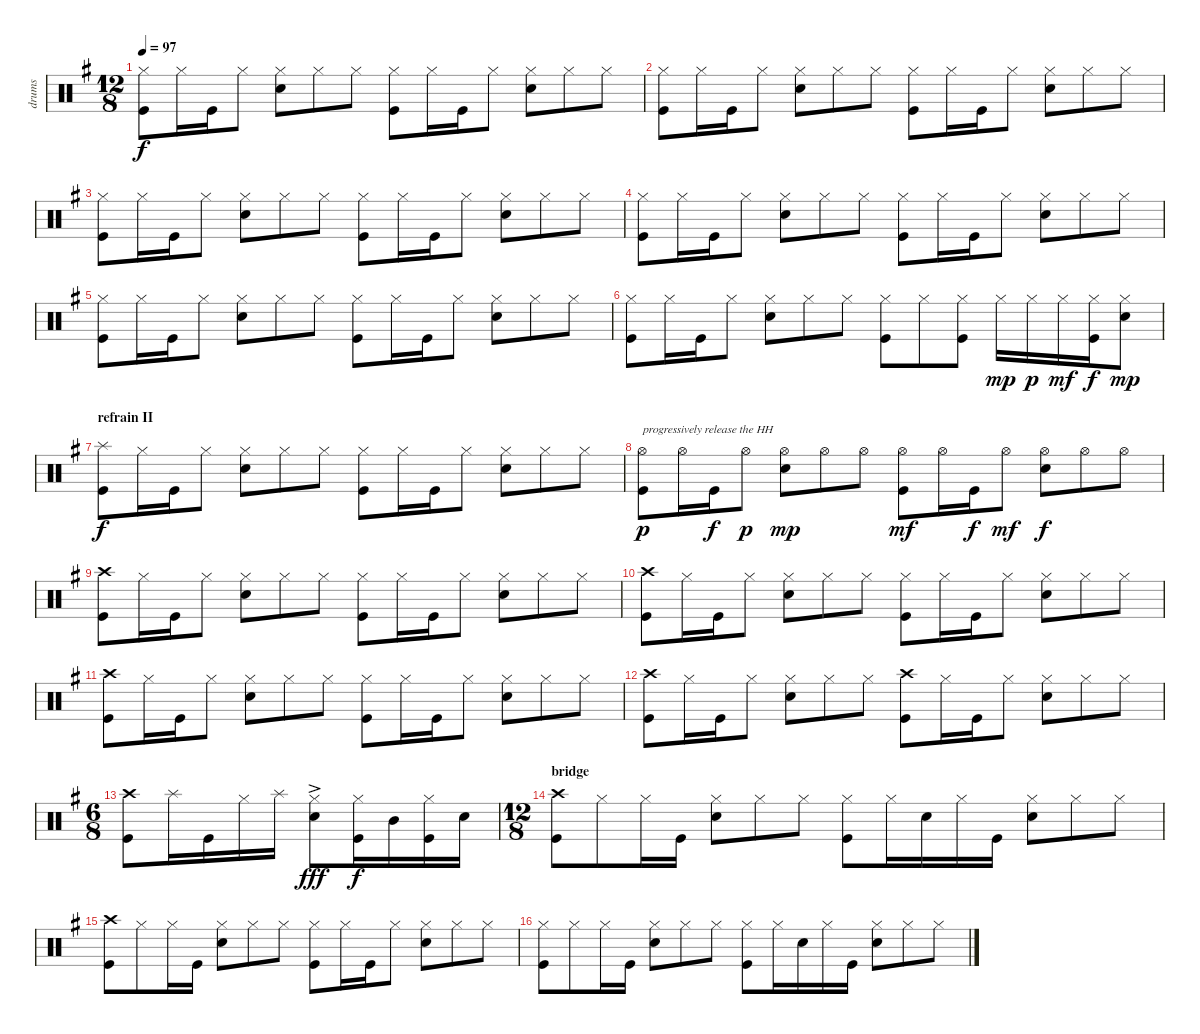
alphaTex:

\track ("drums" "drums") {instrument percussion}
\staff {score}
\articulation defaults
\ts (12 8)
\tempo 97
\clef neutral
\ks g
("Hi-Hat (closed)" "Kick (hit)").8{dy f} "Hi-Hat (closed)".16 "Kick (hit)".16 "Hi-Hat (closed)".8 ("Hi-Hat (closed)" "Electric Snare (hit)").8 "Hi-Hat (closed)".8 "Hi-Hat (closed)".8 ("Hi-Hat (closed)" "Kick (hit)").8 "Hi-Hat (closed)".16 "Kick (hit)".16 "Hi-Hat (closed)".8 ("Hi-Hat (closed)" "Electric Snare (hit)").8 "Hi-Hat (closed)".8 "Hi-Hat (closed)".8 |
("Hi-Hat (closed)" "Kick (hit)").8 "Hi-Hat (closed)".16 "Kick (hit)".16 "Hi-Hat (closed)".8 ("Hi-Hat (closed)" "Electric Snare (hit)").8 "Hi-Hat (closed)".8 "Hi-Hat (closed)".8 ("Hi-Hat (closed)" "Kick (hit)").8 "Hi-Hat (closed)".16 "Kick (hit)".16 "Hi-Hat (closed)".8 ("Hi-Hat (closed)" "Electric Snare (hit)").8 "Hi-Hat (closed)".8 "Hi-Hat (closed)".8 |
("Hi-Hat (closed)" "Kick (hit)").8 "Hi-Hat (closed)".16 "Kick (hit)".16 "Hi-Hat (closed)".8 ("Hi-Hat (closed)" "Electric Snare (hit)").8 "Hi-Hat (closed)".8 "Hi-Hat (closed)".8 ("Hi-Hat (closed)" "Kick (hit)").8 "Hi-Hat (closed)".16 "Kick (hit)".16 "Hi-Hat (closed)".8 ("Hi-Hat (closed)" "Electric Snare (hit)").8 "Hi-Hat (closed)".8 "Hi-Hat (closed)".8 |
("Hi-Hat (closed)" "Kick (hit)").8 "Hi-Hat (closed)".16 "Kick (hit)".16 "Hi-Hat (closed)".8 ("Hi-Hat (closed)" "Electric Snare (hit)").8 "Hi-Hat (closed)".8 "Hi-Hat (closed)".8 ("Hi-Hat (closed)" "Kick (hit)").8 "Hi-Hat (closed)".16 "Kick (hit)".16 "Hi-Hat (closed)".8 ("Hi-Hat (closed)" "Electric Snare (hit)").8 "Hi-Hat (closed)".8 "Hi-Hat (closed)".8 |
("Hi-Hat (closed)" "Kick (hit)").8 "Hi-Hat (closed)".16 "Kick (hit)".16 "Hi-Hat (closed)".8 ("Hi-Hat (closed)" "Electric Snare (hit)").8 "Hi-Hat (closed)".8 "Hi-Hat (closed)".8 ("Hi-Hat (closed)" "Kick (hit)").8 "Hi-Hat (closed)".16 "Kick (hit)".16 "Hi-Hat (closed)".8 ("Hi-Hat (closed)" "Electric Snare (hit)").8 "Hi-Hat (closed)".8 "Hi-Hat (closed)".8 |
("Hi-Hat (closed)" "Kick (hit)").8 "Hi-Hat (closed)".16 "Kick (hit)".16 "Hi-Hat (closed)".8 ("Hi-Hat (closed)" "Electric Snare (hit)").8 "Hi-Hat (closed)".8 "Hi-Hat (closed)".8 ("Hi-Hat (closed)" "Kick (hit)").8 "Hi-Hat (closed)".8 ("Hi-Hat (closed)" "Kick (hit)").8 "Hi-Hat (closed)".16{dy mp} "Hi-Hat (closed)".16{dy p} "Hi-Hat (closed)".16{dy mf} ("Hi-Hat (closed)" "Kick (hit)").16{dy f} ("Hi-Hat (closed)" "Electric Snare (hit)").8{dy mp} |
\section ("" "refrain II")
("Splash (hit)" "Kick (hit)").8{dy f} "Hi-Hat (closed)".16 "Kick (hit)".16 "Hi-Hat (closed)".8 ("Hi-Hat (closed)" "Electric Snare (hit)").8 "Hi-Hat (closed)".8 "Hi-Hat (closed)".8 ("Hi-Hat (closed)" "Kick (hit)").8 "Hi-Hat (closed)".16 "Kick (hit)".16 "Hi-Hat (closed)".8 ("Hi-Hat (closed)" "Electric Snare (hit)").8 "Hi-Hat (closed)".8 "Hi-Hat (closed)".8 |
("Hi-Hat (open)" "Kick (hit)").8{txt "progressively release the HH" dy p} "Hi-Hat (open)".16 "Kick (hit)".16{dy f} "Hi-Hat (open)".8{dy p} ("Hi-Hat (open)" "Electric Snare (hit)").8{dy mp} "Hi-Hat (open)".8 "Hi-Hat (open)".8 ("Hi-Hat (open)" "Kick (hit)").8{dy mf} "Hi-Hat (open)".16 "Kick (hit)".16{dy f} "Hi-Hat (open)".8{dy mf} ("Hi-Hat (open)" "Electric Snare (hit)").8{dy f} "Hi-Hat (open)".8 "Hi-Hat (open)".8 |
("Crash high (hit)" "Kick (hit)").8 "Hi-Hat (closed)".16 "Kick (hit)".16 "Hi-Hat (closed)".8 ("Hi-Hat (closed)" "Electric Snare (hit)").8 "Hi-Hat (closed)".8 "Hi-Hat (closed)".8 ("Hi-Hat (closed)" "Kick (hit)").8 "Hi-Hat (closed)".16 "Kick (hit)".16 "Hi-Hat (closed)".8 ("Hi-Hat (closed)" "Electric Snare (hit)").8 "Hi-Hat (closed)".8 "Hi-Hat (closed)".8 |
("Crash high (hit)" "Kick (hit)").8 "Hi-Hat (closed)".16 "Kick (hit)".16 "Hi-Hat (closed)".8 ("Hi-Hat (closed)" "Electric Snare (hit)").8 "Hi-Hat (closed)".8 "Hi-Hat (closed)".8 ("Hi-Hat (closed)" "Kick (hit)").8 "Hi-Hat (closed)".16 "Kick (hit)".16 "Hi-Hat (closed)".8 ("Hi-Hat (closed)" "Electric Snare (hit)").8 "Hi-Hat (closed)".8 "Hi-Hat (closed)".8 |
("Crash high (hit)" "Kick (hit)").8 "Hi-Hat (closed)".16 "Kick (hit)".16 "Hi-Hat (closed)".8 ("Hi-Hat (closed)" "Electric Snare (hit)").8 "Hi-Hat (closed)".8 "Hi-Hat (closed)".8 ("Hi-Hat (closed)" "Kick (hit)").8 "Hi-Hat (closed)".16 "Kick (hit)".16 "Hi-Hat (closed)".8 ("Hi-Hat (closed)" "Electric Snare (hit)").8 "Hi-Hat (closed)".8 "Hi-Hat (closed)".8 |
("Crash high (hit)" "Kick (hit)").8 "Hi-Hat (closed)".16 "Kick (hit)".16 "Hi-Hat (closed)".8 ("Hi-Hat (closed)" "Electric Snare (hit)").8 "Hi-Hat (closed)".8 "Hi-Hat (closed)".8 ("Crash high (hit)" "Kick (hit)").8 "Hi-Hat (closed)".16 "Kick (hit)".16 "Hi-Hat (closed)".8 ("Hi-Hat (closed)" "Electric Snare (hit)").8 "Hi-Hat (closed)".8 "Hi-Hat (closed)".8 |
\ts (6 8)
("Crash high (hit)" "Kick (hit)").8 "Splash (hit)".16 "Kick (hit)".16 "Hi-Hat (closed)".16 "Splash (hit)".16 ("Hi-Hat (closed)" "Electric Snare (hit)"{ac}).8{dy fff} ("Hi-Hat (closed)" "Kick (hit)").16{dy f} "Mid Tom (hit)".16 ("Hi-Hat (closed)" "Kick (hit)").16 "Electric Snare (hit)".16 |
\ts (12 8)
\section ("" "bridge")
("Crash high (hit)" "Kick (hit)").8 "Hi-Hat (closed)".8 "Hi-Hat (closed)".16 "Kick (hit)".16 ("Hi-Hat (closed)" "Electric Snare (hit)").8 "Hi-Hat (closed)".8 "Hi-Hat (closed)".8 ("Hi-Hat (closed)" "Kick (hit)").8 "Hi-Hat (closed)".16 "Electric Snare (hit)".16 "Hi-Hat (closed)".16 "Kick (hit)".16 ("Hi-Hat (closed)" "Electric Snare (hit)").8 "Hi-Hat (closed)".8 "Hi-Hat (closed)".8 |
("Crash high (hit)" "Kick (hit)").8 "Hi-Hat (closed)".8 "Hi-Hat (closed)".16 "Kick (hit)".16 ("Hi-Hat (closed)" "Electric Snare (hit)").8 "Hi-Hat (closed)".8 "Hi-Hat (closed)".8 ("Hi-Hat (closed)" "Kick (hit)").8 "Hi-Hat (closed)".16 "Kick (hit)".16 "Hi-Hat (closed)".8 ("Hi-Hat (closed)" "Electric Snare (hit)").8 "Hi-Hat (closed)".8 "Hi-Hat (closed)".8 |
("Hi-Hat (closed)" "Kick (hit)").8 "Hi-Hat (closed)".8 "Hi-Hat (closed)".16 "Kick (hit)".16 ("Hi-Hat (closed)" "Electric Snare (hit)").8 "Hi-Hat (closed)".8 "Hi-Hat (closed)".8 ("Hi-Hat (closed)" "Kick (hit)").8 "Hi-Hat (closed)".16 "Electric Snare (hit)".16 "Hi-Hat (closed)".16 "Kick (hit)".16 ("Hi-Hat (closed)" "Electric Snare (hit)").8 "Hi-Hat (closed)".8 "Hi-Hat (closed)".8
